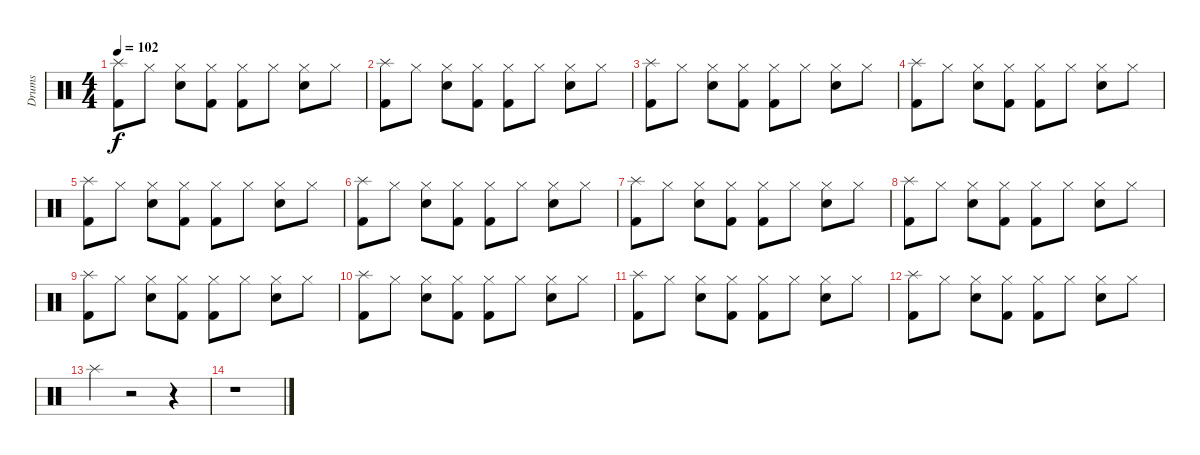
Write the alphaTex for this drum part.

\track ("Drums" "Drums") {instrument percussion}
\staff {score}
\articulation defaults
\ts (4 4)
\tempo 102
\clef neutral
\ks c
("Splash (hit)" "Kick (hit) 2").8{dy f} "Hi-Hat (closed)".8 ("Hi-Hat (closed)" "Snare (hit) 2").8 ("Hi-Hat (closed)" "Kick (hit) 2").8 ("Hi-Hat (closed)" "Kick (hit) 2").8 "Hi-Hat (closed)".8 ("Hi-Hat (closed)" "Snare (hit) 2").8 "Hi-Hat (closed)".8 |
("Splash (hit)" "Kick (hit) 2").8 "Hi-Hat (closed)".8 ("Hi-Hat (closed)" "Snare (hit) 2").8 ("Hi-Hat (closed)" "Kick (hit) 2").8 ("Hi-Hat (closed)" "Kick (hit) 2").8 "Hi-Hat (closed)".8 ("Hi-Hat (closed)" "Snare (hit) 2").8 "Hi-Hat (closed)".8 |
("Splash (hit)" "Kick (hit) 2").8 "Hi-Hat (closed)".8 ("Hi-Hat (closed)" "Snare (hit) 2").8 ("Hi-Hat (closed)" "Kick (hit) 2").8 ("Hi-Hat (closed)" "Kick (hit) 2").8 "Hi-Hat (closed)".8 ("Hi-Hat (closed)" "Snare (hit) 2").8 "Hi-Hat (closed)".8 |
("Splash (hit)" "Kick (hit) 2").8 "Hi-Hat (closed)".8 ("Hi-Hat (closed)" "Snare (hit) 2").8 ("Hi-Hat (closed)" "Kick (hit) 2").8 ("Hi-Hat (closed)" "Kick (hit) 2").8 "Hi-Hat (closed)".8 ("Hi-Hat (closed)" "Snare (hit) 2").8 "Hi-Hat (closed)".8 |
("Splash (hit)" "Kick (hit) 2").8 "Hi-Hat (closed)".8 ("Hi-Hat (closed)" "Snare (hit) 2").8 ("Hi-Hat (closed)" "Kick (hit) 2").8 ("Hi-Hat (closed)" "Kick (hit) 2").8 "Hi-Hat (closed)".8 ("Hi-Hat (closed)" "Snare (hit) 2").8 "Hi-Hat (closed)".8 |
("Splash (hit)" "Kick (hit) 2").8 "Hi-Hat (closed)".8 ("Hi-Hat (closed)" "Snare (hit) 2").8 ("Hi-Hat (closed)" "Kick (hit) 2").8 ("Hi-Hat (closed)" "Kick (hit) 2").8 "Hi-Hat (closed)".8 ("Hi-Hat (closed)" "Snare (hit) 2").8 "Hi-Hat (closed)".8 |
("Splash (hit)" "Kick (hit) 2").8 "Hi-Hat (closed)".8 ("Hi-Hat (closed)" "Snare (hit) 2").8 ("Hi-Hat (closed)" "Kick (hit) 2").8 ("Hi-Hat (closed)" "Kick (hit) 2").8 "Hi-Hat (closed)".8 ("Hi-Hat (closed)" "Snare (hit) 2").8 "Hi-Hat (closed)".8 |
("Splash (hit)" "Kick (hit) 2").8 "Hi-Hat (closed)".8 ("Hi-Hat (closed)" "Snare (hit) 2").8 ("Hi-Hat (closed)" "Kick (hit) 2").8 ("Hi-Hat (closed)" "Kick (hit) 2").8 "Hi-Hat (closed)".8 ("Hi-Hat (closed)" "Snare (hit) 2").8 "Hi-Hat (closed)".8 |
("Splash (hit)" "Kick (hit) 2").8 "Hi-Hat (closed)".8 ("Hi-Hat (closed)" "Snare (hit) 2").8 ("Hi-Hat (closed)" "Kick (hit) 2").8 ("Hi-Hat (closed)" "Kick (hit) 2").8 "Hi-Hat (closed)".8 ("Hi-Hat (closed)" "Snare (hit) 2").8 "Hi-Hat (closed)".8 |
("Splash (hit)" "Kick (hit) 2").8 "Hi-Hat (closed)".8 ("Hi-Hat (closed)" "Snare (hit) 2").8 ("Hi-Hat (closed)" "Kick (hit) 2").8 ("Hi-Hat (closed)" "Kick (hit) 2").8 "Hi-Hat (closed)".8 ("Hi-Hat (closed)" "Snare (hit) 2").8 "Hi-Hat (closed)".8 |
("Splash (hit)" "Kick (hit) 2").8 "Hi-Hat (closed)".8 ("Hi-Hat (closed)" "Snare (hit) 2").8 ("Hi-Hat (closed)" "Kick (hit) 2").8 ("Hi-Hat (closed)" "Kick (hit) 2").8 "Hi-Hat (closed)".8 ("Hi-Hat (closed)" "Snare (hit) 2").8 "Hi-Hat (closed)".8 |
("Splash (hit)" "Kick (hit) 2").8 "Hi-Hat (closed)".8 ("Hi-Hat (closed)" "Snare (hit) 2").8 ("Hi-Hat (closed)" "Kick (hit) 2").8 ("Hi-Hat (closed)" "Kick (hit) 2").8 "Hi-Hat (closed)".8 ("Hi-Hat (closed)" "Snare (hit) 2").8 "Hi-Hat (closed)".8 |
"Splash (hit)".4 r.2 r.4 |
r.1
